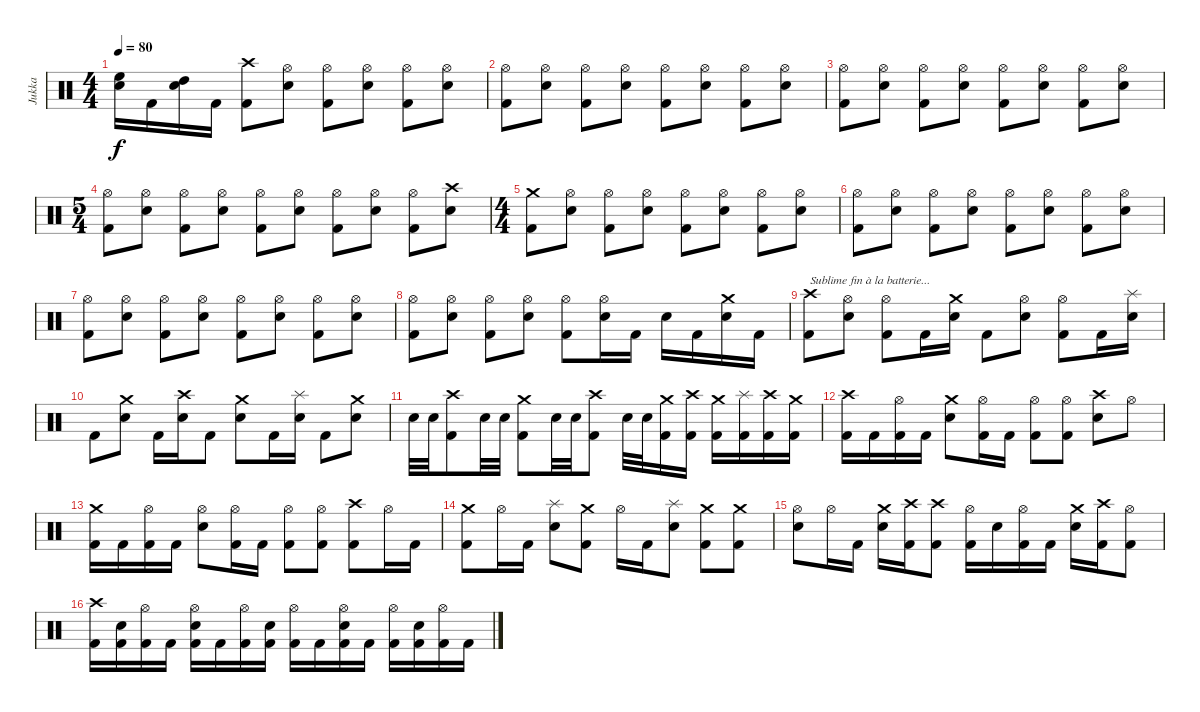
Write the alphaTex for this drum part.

\track ("Jukka" "Jukka") {instrument percussion}
\staff {score}
\articulation defaults
\ts (4 4)
\tempo 80
\clef neutral
\ks c
("High Floor Tom (hit)" "Electric Snare (hit)").16{dy f} "Kick (hit) 2".16 ("High Tom (hit)" "Electric Snare (hit)").16 "Kick (hit) 2".16 ("Crash high (hit)" "Kick (hit) 2").8 ("Hi-Hat (open)" "Electric Snare (hit)").8 ("Hi-Hat (open)" "Kick (hit) 2").8 ("Hi-Hat (open)" "Electric Snare (hit)").8 ("Hi-Hat (open)" "Kick (hit) 2").8 ("Hi-Hat (open)" "Electric Snare (hit)").8 |
("Hi-Hat (open)" "Kick (hit) 2").8 ("Hi-Hat (open)" "Electric Snare (hit)").8 ("Hi-Hat (open)" "Kick (hit) 2").8 ("Hi-Hat (open)" "Electric Snare (hit)").8 ("Hi-Hat (open)" "Kick (hit) 2").8 ("Hi-Hat (open)" "Electric Snare (hit)").8 ("Hi-Hat (open)" "Kick (hit) 2").8 ("Hi-Hat (open)" "Electric Snare (hit)").8 |
("Hi-Hat (open)" "Kick (hit) 2").8 ("Hi-Hat (open)" "Electric Snare (hit)").8 ("Hi-Hat (open)" "Kick (hit) 2").8 ("Hi-Hat (open)" "Electric Snare (hit)").8 ("Hi-Hat (open)" "Kick (hit) 2").8 ("Hi-Hat (open)" "Electric Snare (hit)").8 ("Hi-Hat (open)" "Kick (hit) 2").8 ("Hi-Hat (open)" "Electric Snare (hit)").8 |
\ts (5 4)
("Hi-Hat (open)" "Kick (hit) 2").8 ("Hi-Hat (open)" "Electric Snare (hit)").8 ("Hi-Hat (open)" "Kick (hit) 2").8 ("Hi-Hat (open)" "Electric Snare (hit)").8 ("Hi-Hat (open)" "Kick (hit) 2").8 ("Hi-Hat (open)" "Electric Snare (hit)").8 ("Hi-Hat (open)" "Kick (hit) 2").8 ("Hi-Hat (open)" "Electric Snare (hit)").8 ("Hi-Hat (open)" "Kick (hit) 2").8 ("Crash high (hit)" "Electric Snare (hit)").8 |
\ts (4 4)
("Crash medium (hit)" "Kick (hit) 2").8 ("Hi-Hat (open)" "Electric Snare (hit)").8 ("Hi-Hat (open)" "Kick (hit) 2").8 ("Hi-Hat (open)" "Electric Snare (hit)").8 ("Hi-Hat (open)" "Kick (hit) 2").8 ("Hi-Hat (open)" "Electric Snare (hit)").8 ("Hi-Hat (open)" "Kick (hit) 2").8 ("Hi-Hat (open)" "Electric Snare (hit)").8 |
("Hi-Hat (open)" "Kick (hit) 2").8 ("Hi-Hat (open)" "Electric Snare (hit)").8 ("Hi-Hat (open)" "Kick (hit) 2").8 ("Hi-Hat (open)" "Electric Snare (hit)").8 ("Hi-Hat (open)" "Kick (hit) 2").8 ("Hi-Hat (open)" "Electric Snare (hit)").8 ("Hi-Hat (open)" "Kick (hit) 2").8 ("Hi-Hat (open)" "Electric Snare (hit)").8 |
("Hi-Hat (open)" "Kick (hit) 2").8 ("Hi-Hat (open)" "Electric Snare (hit)").8 ("Hi-Hat (open)" "Kick (hit) 2").8 ("Hi-Hat (open)" "Electric Snare (hit)").8 ("Hi-Hat (open)" "Kick (hit) 2").8 ("Hi-Hat (open)" "Electric Snare (hit)").8 ("Hi-Hat (open)" "Kick (hit) 2").8 ("Hi-Hat (open)" "Electric Snare (hit)").8 |
("Hi-Hat (open)" "Kick (hit) 2").8 ("Hi-Hat (open)" "Electric Snare (hit)").8 ("Hi-Hat (open)" "Kick (hit) 2").8 ("Hi-Hat (open)" "Electric Snare (hit)").8 ("Hi-Hat (open)" "Kick (hit) 2").8 ("Hi-Hat (open)" "Electric Snare (hit)").16 "Kick (hit) 2".16 "Electric Snare (hit)".16 "Kick (hit) 2".16 ("Crash medium (hit)" "Electric Snare (hit)").16 "Kick (hit) 2".16 |
("Crash high (hit)" "Kick (hit) 2").8{txt "Sublime fin à la batterie..."} ("Hi-Hat (open)" "Electric Snare (hit)").8 ("Hi-Hat (open)" "Kick (hit) 2").8 "Kick (hit) 2".16 ("Crash medium (hit)" "Electric Snare (hit)").16 "Kick (hit) 2".8 ("Hi-Hat (open)" "Electric Snare (hit)").8 ("Hi-Hat (open)" "Kick (hit) 2").8 "Kick (hit) 2".16 ("Splash (hit)" "Electric Snare (hit)").16 |
"Kick (hit) 2".8 ("Crash medium (hit)" "Electric Snare (hit)").8 "Kick (hit) 2".16 ("Crash high (hit)" "Electric Snare (hit)").16 "Kick (hit) 2".8 ("Crash medium (hit)" "Electric Snare (hit)").8 "Kick (hit) 2".16 ("Splash (hit)" "Electric Snare (hit)").16 "Kick (hit) 2".8 ("Crash medium (hit)" "Electric Snare (hit)").8 |
"Electric Snare (hit)".32 "Electric Snare (hit)".32 ("Crash high (hit)" "Kick (hit) 2").8 "Electric Snare (hit)".32 "Electric Snare (hit)".32 ("Crash medium (hit)" "Kick (hit) 2").8 "Electric Snare (hit)".32 "Electric Snare (hit)".32 ("Crash high (hit)" "Kick (hit) 2").8 "Electric Snare (hit)".32 "Electric Snare (hit)".32 ("Crash medium (hit)" "Kick (hit) 2").16 ("Crash high (hit)" "Kick (hit) 2").16 ("Crash medium (hit)" "Kick (hit) 2").16 ("Splash (hit)" "Kick (hit) 2").16 ("Crash high (hit)" "Kick (hit) 2").16 ("Crash medium (hit)" "Kick (hit) 2").16 |
("Crash high (hit)" "Kick (hit) 2").16 "Kick (hit) 2".16 ("Hi-Hat (open)" "Kick (hit) 2").16 "Kick (hit) 2".16 ("Crash medium (hit)" "Electric Snare (hit)").8 ("Hi-Hat (open)" "Kick (hit) 2").16 "Kick (hit) 2".16 ("Hi-Hat (open)" "Kick (hit) 2").8 ("Hi-Hat (open)" "Kick (hit) 2").8 ("Crash high (hit)" "Electric Snare (hit)").8 "Hi-Hat (open)".8 |
("Crash medium (hit)" "Kick (hit) 2").16 "Kick (hit) 2".16 ("Hi-Hat (open)" "Kick (hit) 2").16 "Kick (hit) 2".16 ("Hi-Hat (open)" "Electric Snare (hit)").8 ("Hi-Hat (open)" "Kick (hit) 2").16 "Kick (hit) 2".16 ("Hi-Hat (open)" "Kick (hit) 2").8 ("Hi-Hat (open)" "Kick (hit) 2").8 ("Crash high (hit)" "Kick (hit) 2").8 "Hi-Hat (open)".16 "Kick (hit) 2".16 |
("Crash medium (hit)" "Kick (hit) 2").8 "Hi-Hat (open)".16 "Kick (hit) 2".16 ("Splash (hit)" "Electric Snare (hit)").8 ("Crash medium (hit)" "Kick (hit) 2").8 "Hi-Hat (open)".16 "Kick (hit) 2".16 ("Splash (hit)" "Electric Snare (hit)").8 ("Crash medium (hit)" "Kick (hit) 2").8 ("Crash medium (hit)" "Kick (hit) 2").8 |
("Hi-Hat (open)" "Electric Snare (hit)").8 "Hi-Hat (open)".16 "Kick (hit) 2".16 ("Crash medium (hit)" "Electric Snare (hit)").16 ("Crash high (hit)" "Kick (hit) 2").16 ("Crash high (hit)" "Kick (hit) 2").8 ("Hi-Hat (open)" "Kick (hit) 2").16 "Electric Snare (hit)".16 ("Hi-Hat (open)" "Kick (hit) 2").16 "Kick (hit) 2".16 ("Crash medium (hit)" "Electric Snare (hit)").16 ("Crash high (hit)" "Kick (hit) 2").16 ("Hi-Hat (open)" "Kick (hit) 2").8 |
("Crash high (hit)" "Kick (hit) 2").16 ("Electric Snare (hit)" "Kick (hit) 2").16 ("Hi-Hat (open)" "Kick (hit) 2").16 "Kick (hit) 2".16 ("Hi-Hat (open)" "Electric Snare (hit)" "Kick (hit) 2").16 "Kick (hit) 2".16 ("Hi-Hat (open)" "Kick (hit) 2").16 ("Electric Snare (hit)" "Kick (hit) 2").16 ("Hi-Hat (open)" "Kick (hit) 2").16 "Kick (hit) 2".16 ("Hi-Hat (open)" "Electric Snare (hit)" "Kick (hit) 2").16 "Kick (hit) 2".16 ("Hi-Hat (open)" "Kick (hit) 2").16 ("Electric Snare (hit)" "Kick (hit) 2").16 ("Hi-Hat (open)" "Kick (hit) 2").16 "Kick (hit) 2".16
